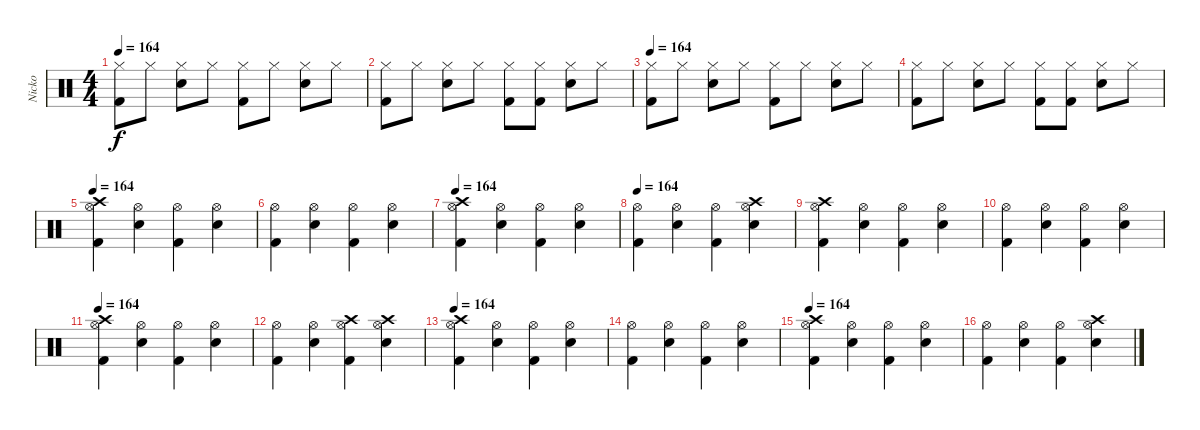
\track ("Nicko" "Nicko") {instrument percussion}
\staff {score}
\articulation defaults
\ts (4 4)
\tempo 164
\clef neutral
\ks c
("Hi-Hat (closed)" "Kick (hit) 2").8{dy f} "Hi-Hat (closed)".8 ("Hi-Hat (closed)" "Snare (hit) 2").8 "Hi-Hat (closed)".8 ("Hi-Hat (closed)" "Kick (hit) 2").8 "Hi-Hat (closed)".8 ("Hi-Hat (closed)" "Snare (hit) 2").8 "Hi-Hat (closed)".8 |
("Hi-Hat (closed)" "Kick (hit) 2").8 "Hi-Hat (closed)".8 ("Hi-Hat (closed)" "Snare (hit) 2").8 "Hi-Hat (closed)".8 ("Hi-Hat (closed)" "Kick (hit) 2").8 ("Hi-Hat (closed)" "Kick (hit) 2").8 ("Hi-Hat (closed)" "Snare (hit) 2").8 "Hi-Hat (closed)".8 |
\tempo 164
("Hi-Hat (closed)" "Kick (hit) 2").8 "Hi-Hat (closed)".8 ("Hi-Hat (closed)" "Snare (hit) 2").8 "Hi-Hat (closed)".8 ("Hi-Hat (closed)" "Kick (hit) 2").8 "Hi-Hat (closed)".8 ("Hi-Hat (closed)" "Snare (hit) 2").8 "Hi-Hat (closed)".8 |
("Hi-Hat (closed)" "Kick (hit) 2").8 "Hi-Hat (closed)".8 ("Hi-Hat (closed)" "Snare (hit) 2").8 "Hi-Hat (closed)".8 ("Hi-Hat (closed)" "Kick (hit) 2").8 ("Hi-Hat (closed)" "Kick (hit) 2").8 ("Hi-Hat (closed)" "Snare (hit) 2").8 "Hi-Hat (closed)".8 |
\tempo 164
("Hi-Hat (open)" "Crash high (hit)" "Kick (hit) 2").4 ("Hi-Hat (open)" "Snare (hit) 2").4 ("Hi-Hat (open)" "Kick (hit) 2").4 ("Hi-Hat (open)" "Snare (hit) 2").4 |
("Hi-Hat (open)" "Kick (hit) 2").4 ("Hi-Hat (open)" "Snare (hit) 2").4 ("Hi-Hat (open)" "Kick (hit) 2").4 ("Hi-Hat (open)" "Snare (hit) 2").4 |
\tempo 164
("Hi-Hat (open)" "Crash high (hit)" "Kick (hit) 2").4 ("Hi-Hat (open)" "Snare (hit) 2").4 ("Hi-Hat (open)" "Kick (hit) 2").4 ("Hi-Hat (open)" "Snare (hit) 2").4 |
\tempo 164
("Hi-Hat (open)" "Kick (hit) 2").4 ("Hi-Hat (open)" "Snare (hit) 2").4 ("Hi-Hat (open)" "Kick (hit) 2").4 ("Hi-Hat (open)" "Snare (hit) 2" "Crash high (hit)").4 |
("Hi-Hat (open)" "Crash high (hit)" "Kick (hit) 2").4 ("Hi-Hat (open)" "Snare (hit) 2").4 ("Hi-Hat (open)" "Kick (hit) 2").4 ("Hi-Hat (open)" "Snare (hit) 2").4 |
("Hi-Hat (open)" "Kick (hit) 2").4 ("Hi-Hat (open)" "Snare (hit) 2").4 ("Hi-Hat (open)" "Kick (hit) 2").4 ("Hi-Hat (open)" "Snare (hit) 2").4 |
\tempo 164
("Hi-Hat (open)" "Crash high (hit)" "Kick (hit) 2").4 ("Hi-Hat (open)" "Snare (hit) 2").4 ("Hi-Hat (open)" "Kick (hit) 2").4 ("Hi-Hat (open)" "Snare (hit) 2").4 |
("Hi-Hat (open)" "Kick (hit) 2").4 ("Hi-Hat (open)" "Snare (hit) 2").4 ("Hi-Hat (open)" "Crash high (hit)" "Kick (hit) 2").4 ("Hi-Hat (open)" "Snare (hit) 2" "Crash high (hit)").4 |
\tempo 164
("Hi-Hat (open)" "Crash high (hit)" "Kick (hit) 2").4 ("Hi-Hat (open)" "Snare (hit) 2").4 ("Hi-Hat (open)" "Kick (hit) 2").4 ("Hi-Hat (open)" "Snare (hit) 2").4 |
("Hi-Hat (open)" "Kick (hit) 2").4 ("Hi-Hat (open)" "Snare (hit) 2").4 ("Hi-Hat (open)" "Kick (hit) 2").4 ("Hi-Hat (open)" "Snare (hit) 2").4 |
\tempo 164
("Hi-Hat (open)" "Crash high (hit)" "Kick (hit) 2").4 ("Hi-Hat (open)" "Snare (hit) 2").4 ("Hi-Hat (open)" "Kick (hit) 2").4 ("Hi-Hat (open)" "Snare (hit) 2").4 |
("Hi-Hat (open)" "Kick (hit) 2").4 ("Hi-Hat (open)" "Snare (hit) 2").4 ("Hi-Hat (open)" "Kick (hit) 2").4 ("Hi-Hat (open)" "Snare (hit) 2" "Crash high (hit)").4
